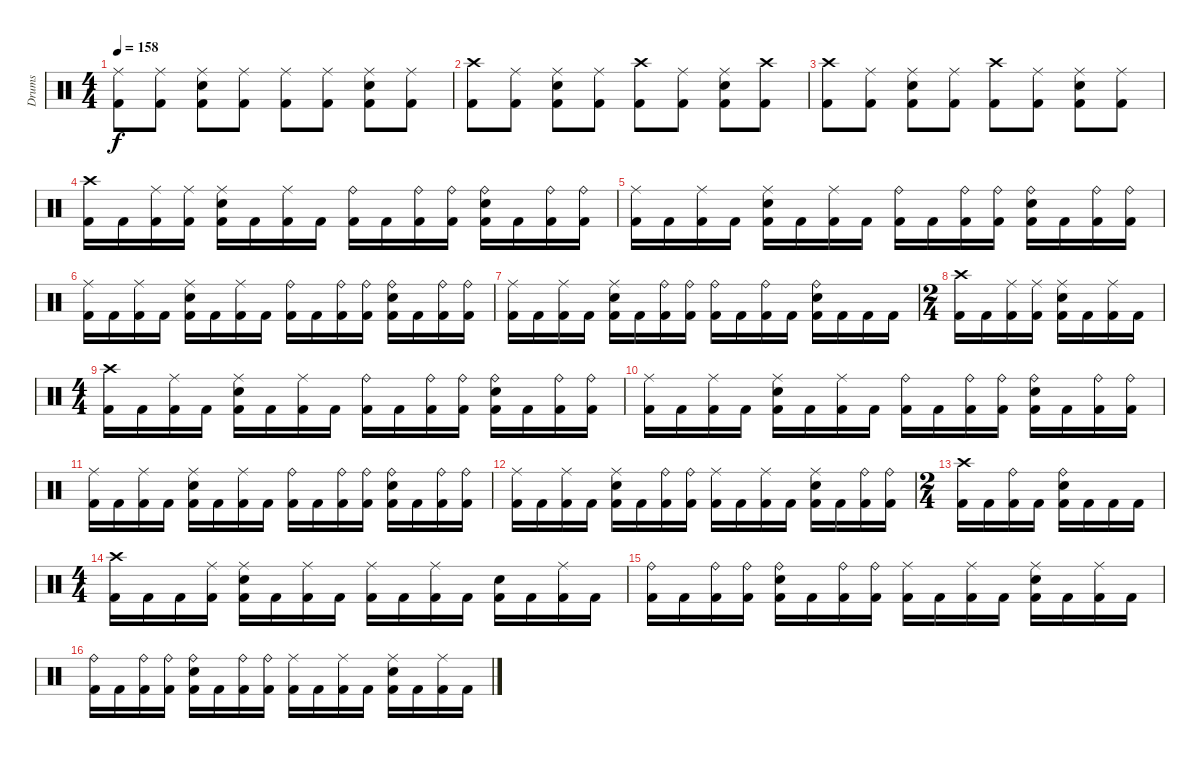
\track ("Drums" "Drums") {instrument percussion}
\staff {score}
\articulation defaults
\ts (4 4)
\tempo 158
\clef neutral
\ks c
("Ride (middle)" "Kick (hit) 2").8{dy f} ("Ride (middle)" "Kick (hit) 2").8 ("Ride (middle)" "Snare (hit) 2" "Kick (hit) 2").8 ("Ride (middle)" "Kick (hit) 2").8 ("Ride (middle)" "Kick (hit) 2").8 ("Ride (middle)" "Kick (hit) 2").8 ("Ride (middle)" "Snare (hit) 2" "Kick (hit) 2").8 ("Ride (middle)" "Kick (hit) 2").8 |
("Crash high (hit)" "Kick (hit) 2").8 ("Ride (middle)" "Kick (hit) 2").8 ("Ride (middle)" "Snare (hit) 2" "Kick (hit) 2").8 ("Ride (middle)" "Kick (hit) 2").8 ("Crash high (hit)" "Kick (hit) 2").8 ("Ride (middle)" "Kick (hit) 2").8 ("Ride (middle)" "Snare (hit) 2" "Kick (hit) 2").8 ("Crash high (hit)" "Kick (hit) 2").8 |
("Crash high (hit)" "Kick (hit) 2").8 ("Ride (middle)" "Kick (hit) 2").8 ("Ride (middle)" "Snare (hit) 2" "Kick (hit) 2").8 ("Ride (middle)" "Kick (hit) 2").8 ("Crash high (hit)" "Kick (hit) 2").8 ("Ride (middle)" "Kick (hit) 2").8 ("Ride (middle)" "Snare (hit) 2" "Kick (hit) 2").8 ("Ride (middle)" "Kick (hit) 2").8 |
("Crash high (hit)" "Kick (hit) 2").16 "Kick (hit) 2".16 ("Ride (middle)" "Kick (hit) 2").16 ("Ride (middle)" "Kick (hit) 2").16 ("Ride (middle)" "Snare (hit) 2" "Kick (hit) 2").16 "Kick (hit) 2".16 ("Ride (middle)" "Kick (hit) 2").16 "Kick (hit) 2".16 ("Ride (bell)" "Kick (hit) 2").16 "Kick (hit) 2".16 ("Ride (bell)" "Kick (hit) 2").16 ("Ride (bell)" "Kick (hit) 2").16 ("Ride (bell)" "Snare (hit) 2" "Kick (hit) 2").16 "Kick (hit) 2".16 ("Ride (bell)" "Kick (hit) 2").16 ("Ride (bell)" "Kick (hit) 2").16 |
("Ride (middle)" "Kick (hit) 2").16 "Kick (hit) 2".16 ("Ride (middle)" "Kick (hit) 2").16 "Kick (hit) 2".16 ("Ride (middle)" "Snare (hit) 2" "Kick (hit) 2").16 "Kick (hit) 2".16 ("Ride (middle)" "Kick (hit) 2").16 "Kick (hit) 2".16 ("Ride (bell)" "Kick (hit) 2").16 "Kick (hit) 2".16 ("Ride (bell)" "Kick (hit) 2").16 ("Ride (bell)" "Kick (hit) 2").16 ("Ride (bell)" "Snare (hit) 2" "Kick (hit) 2").16 "Kick (hit) 2".16 ("Ride (bell)" "Kick (hit) 2").16 ("Ride (bell)" "Kick (hit) 2").16 |
("Ride (middle)" "Kick (hit) 2").16 "Kick (hit) 2".16 ("Ride (middle)" "Kick (hit) 2").16 "Kick (hit) 2".16 ("Ride (middle)" "Snare (hit) 2" "Kick (hit) 2").16 "Kick (hit) 2".16 ("Ride (middle)" "Kick (hit) 2").16 "Kick (hit) 2".16 ("Ride (bell)" "Kick (hit) 2").16 "Kick (hit) 2".16 ("Ride (bell)" "Kick (hit) 2").16 ("Ride (bell)" "Kick (hit) 2").16 ("Ride (bell)" "Snare (hit) 2" "Kick (hit) 2").16 "Kick (hit) 2".16 ("Ride (bell)" "Kick (hit) 2").16 ("Ride (bell)" "Kick (hit) 2").16 |
("Ride (middle)" "Kick (hit) 2").16 "Kick (hit) 2".16 ("Ride (middle)" "Kick (hit) 2").16 "Kick (hit) 2".16 ("Ride (middle)" "Snare (hit) 2" "Kick (hit) 2").16 "Kick (hit) 2".16 ("Ride (bell)" "Kick (hit) 2").16 ("Ride (bell)" "Kick (hit) 2").16 ("Ride (bell)" "Kick (hit) 2").16 "Kick (hit) 2".16 ("Ride (bell)" "Kick (hit) 2").16 "Kick (hit) 2".16 ("Ride (bell)" "Snare (hit) 2" "Kick (hit) 2").16 "Kick (hit) 2".16 "Kick (hit) 2".16 "Kick (hit) 2".16 |
\ts (2 4)
("Crash high (hit)" "Kick (hit) 2").16 "Kick (hit) 2".16 ("Ride (middle)" "Kick (hit) 2").16 ("Ride (middle)" "Kick (hit) 2").16 ("Ride (middle)" "Snare (hit) 2" "Kick (hit) 2").16 "Kick (hit) 2".16 ("Ride (middle)" "Kick (hit) 2").16 "Kick (hit) 2".16 |
\ts (4 4)
("Crash high (hit)" "Kick (hit) 2").16 "Kick (hit) 2".16 ("Ride (middle)" "Kick (hit) 2").16 "Kick (hit) 2".16 ("Ride (middle)" "Snare (hit) 2" "Kick (hit) 2").16 "Kick (hit) 2".16 ("Ride (middle)" "Kick (hit) 2").16 "Kick (hit) 2".16 ("Ride (bell)" "Kick (hit) 2").16 "Kick (hit) 2".16 ("Ride (bell)" "Kick (hit) 2").16 ("Ride (bell)" "Kick (hit) 2").16 ("Ride (bell)" "Snare (hit) 2" "Kick (hit) 2").16 "Kick (hit) 2".16 ("Ride (bell)" "Kick (hit) 2").16 ("Ride (bell)" "Kick (hit) 2").16 |
("Ride (middle)" "Kick (hit) 2").16 "Kick (hit) 2".16 ("Ride (middle)" "Kick (hit) 2").16 "Kick (hit) 2".16 ("Ride (middle)" "Snare (hit) 2" "Kick (hit) 2").16 "Kick (hit) 2".16 ("Ride (middle)" "Kick (hit) 2").16 "Kick (hit) 2".16 ("Ride (bell)" "Kick (hit) 2").16 "Kick (hit) 2".16 ("Ride (bell)" "Kick (hit) 2").16 ("Ride (bell)" "Kick (hit) 2").16 ("Ride (bell)" "Snare (hit) 2" "Kick (hit) 2").16 "Kick (hit) 2".16 ("Ride (bell)" "Kick (hit) 2").16 ("Ride (bell)" "Kick (hit) 2").16 |
("Ride (middle)" "Kick (hit) 2").16 "Kick (hit) 2".16 ("Ride (middle)" "Kick (hit) 2").16 "Kick (hit) 2".16 ("Ride (middle)" "Snare (hit) 2" "Kick (hit) 2").16 "Kick (hit) 2".16 ("Ride (middle)" "Kick (hit) 2").16 "Kick (hit) 2".16 ("Ride (bell)" "Kick (hit) 2").16 "Kick (hit) 2".16 ("Ride (bell)" "Kick (hit) 2").16 ("Ride (bell)" "Kick (hit) 2").16 ("Ride (bell)" "Snare (hit) 2" "Kick (hit) 2").16 "Kick (hit) 2".16 ("Ride (bell)" "Kick (hit) 2").16 ("Ride (bell)" "Kick (hit) 2").16 |
("Ride (middle)" "Kick (hit) 2").16 "Kick (hit) 2".16 ("Ride (middle)" "Kick (hit) 2").16 "Kick (hit) 2".16 ("Ride (middle)" "Snare (hit) 2" "Kick (hit) 2").16 "Kick (hit) 2".16 ("Ride (bell)" "Kick (hit) 2").16 ("Ride (bell)" "Kick (hit) 2").16 ("Ride (middle)" "Kick (hit) 2").16 "Kick (hit) 2".16 ("Ride (middle)" "Kick (hit) 2").16 "Kick (hit) 2".16 ("Ride (middle)" "Snare (hit) 2" "Kick (hit) 2").16 "Kick (hit) 2".16 ("Ride (bell)" "Kick (hit) 2").16 ("Ride (bell)" "Kick (hit) 2").16 |
\ts (2 4)
("Crash high (hit)" "Kick (hit) 2").16 "Kick (hit) 2".16 ("Ride (bell)" "Kick (hit) 2").16 "Kick (hit) 2".16 ("Ride (bell)" "Snare (hit) 2" "Kick (hit) 2").16 "Kick (hit) 2".16 "Kick (hit) 2".16 "Kick (hit) 2".16 |
\ts (4 4)
("Crash high (hit)" "Kick (hit) 2").16 "Kick (hit) 2".16 "Kick (hit) 2".16 ("Ride (middle)" "Kick (hit) 2").16 ("Ride (middle)" "Snare (hit) 2" "Kick (hit) 2").16 "Kick (hit) 2".16 ("Ride (middle)" "Kick (hit) 2").16 "Kick (hit) 2".16 ("Ride (middle)" "Kick (hit) 2").16 "Kick (hit) 2".16 ("Ride (middle)" "Kick (hit) 2").16 "Kick (hit) 2".16 ("Snare (hit) 2" "Kick (hit) 2").16 "Kick (hit) 2".16 ("Ride (middle)" "Kick (hit) 2").16 "Kick (hit) 2".16 |
("Ride (bell)" "Kick (hit) 2").16 "Kick (hit) 2".16 ("Ride (bell)" "Kick (hit) 2").16 ("Ride (bell)" "Kick (hit) 2").16 ("Ride (bell)" "Snare (hit) 2" "Kick (hit) 2").16 "Kick (hit) 2".16 ("Ride (bell)" "Kick (hit) 2").16 ("Ride (bell)" "Kick (hit) 2").16 ("Ride (middle)" "Kick (hit) 2").16 "Kick (hit) 2".16 ("Ride (middle)" "Kick (hit) 2").16 "Kick (hit) 2".16 ("Ride (middle)" "Snare (hit) 2" "Kick (hit) 2").16 "Kick (hit) 2".16 ("Ride (middle)" "Kick (hit) 2").16 "Kick (hit) 2".16 |
("Ride (bell)" "Kick (hit) 2").16 "Kick (hit) 2".16 ("Ride (bell)" "Kick (hit) 2").16 ("Ride (bell)" "Kick (hit) 2").16 ("Ride (bell)" "Snare (hit) 2" "Kick (hit) 2").16 "Kick (hit) 2".16 ("Ride (bell)" "Kick (hit) 2").16 ("Ride (bell)" "Kick (hit) 2").16 ("Ride (middle)" "Kick (hit) 2").16 "Kick (hit) 2".16 ("Ride (middle)" "Kick (hit) 2").16 "Kick (hit) 2".16 ("Ride (middle)" "Snare (hit) 2" "Kick (hit) 2").16 "Kick (hit) 2".16 ("Ride (middle)" "Kick (hit) 2").16 "Kick (hit) 2".16
